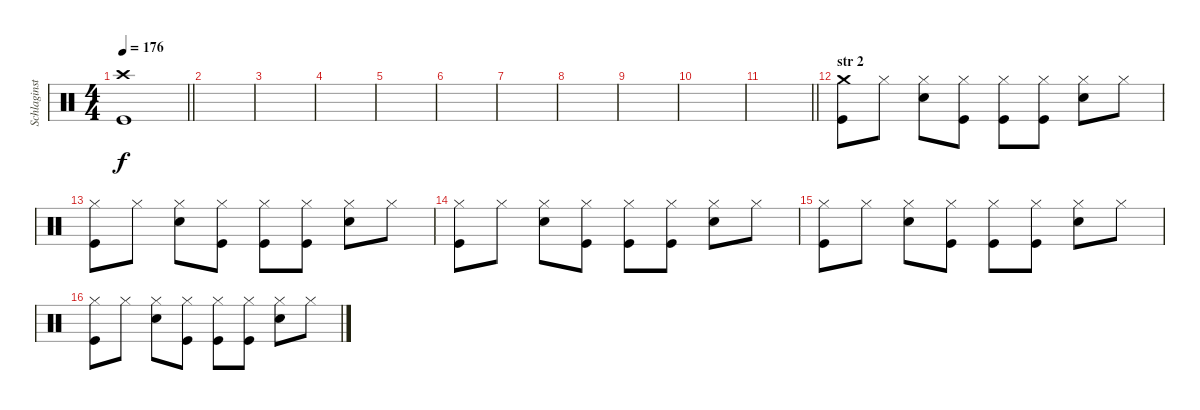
\track ("Schlaginstrumente - Auswahl" "Schlaginst") {instrument percussion}
\staff {score}
\articulation defaults
\ts (4 4)
\tempo 176
\clef neutral
\barLineRight lightlight
\ks c
("Kick (hit)" "Crash high (hit)").1{dy f} |
|
|
|
|
|
|
|
|
|
\barLineRight lightlight
|
\section ("" "str 2")
("Crash medium (hit)" "Kick (hit)").8 "Hi-Hat (closed)".8 ("Hi-Hat (closed)" "Snare (hit) 2").8 ("Hi-Hat (closed)" "Kick (hit)").8 ("Hi-Hat (closed)" "Kick (hit)").8 ("Hi-Hat (closed)" "Kick (hit)").8 ("Hi-Hat (closed)" "Snare (hit) 2").8 "Hi-Hat (closed)".8 |
("Hi-Hat (closed)" "Kick (hit)").8 "Hi-Hat (closed)".8 ("Hi-Hat (closed)" "Snare (hit) 2").8 ("Hi-Hat (closed)" "Kick (hit)").8 ("Hi-Hat (closed)" "Kick (hit)").8 ("Hi-Hat (closed)" "Kick (hit)").8 ("Hi-Hat (closed)" "Snare (hit) 2").8 "Hi-Hat (closed)".8 |
("Hi-Hat (closed)" "Kick (hit)").8 "Hi-Hat (closed)".8 ("Hi-Hat (closed)" "Snare (hit) 2").8 ("Hi-Hat (closed)" "Kick (hit)").8 ("Hi-Hat (closed)" "Kick (hit)").8 ("Hi-Hat (closed)" "Kick (hit)").8 ("Hi-Hat (closed)" "Snare (hit) 2").8 "Hi-Hat (closed)".8 |
("Hi-Hat (closed)" "Kick (hit)").8 "Hi-Hat (closed)".8 ("Hi-Hat (closed)" "Snare (hit) 2").8 ("Hi-Hat (closed)" "Kick (hit)").8 ("Hi-Hat (closed)" "Kick (hit)").8 ("Hi-Hat (closed)" "Kick (hit)").8 ("Hi-Hat (closed)" "Snare (hit) 2").8 "Hi-Hat (closed)".8 |
("Hi-Hat (closed)" "Kick (hit)").8 "Hi-Hat (closed)".8 ("Hi-Hat (closed)" "Snare (hit) 2").8 ("Hi-Hat (closed)" "Kick (hit)").8 ("Hi-Hat (closed)" "Kick (hit)").8 ("Hi-Hat (closed)" "Kick (hit)").8 ("Hi-Hat (closed)" "Snare (hit) 2").8 "Hi-Hat (closed)".8
